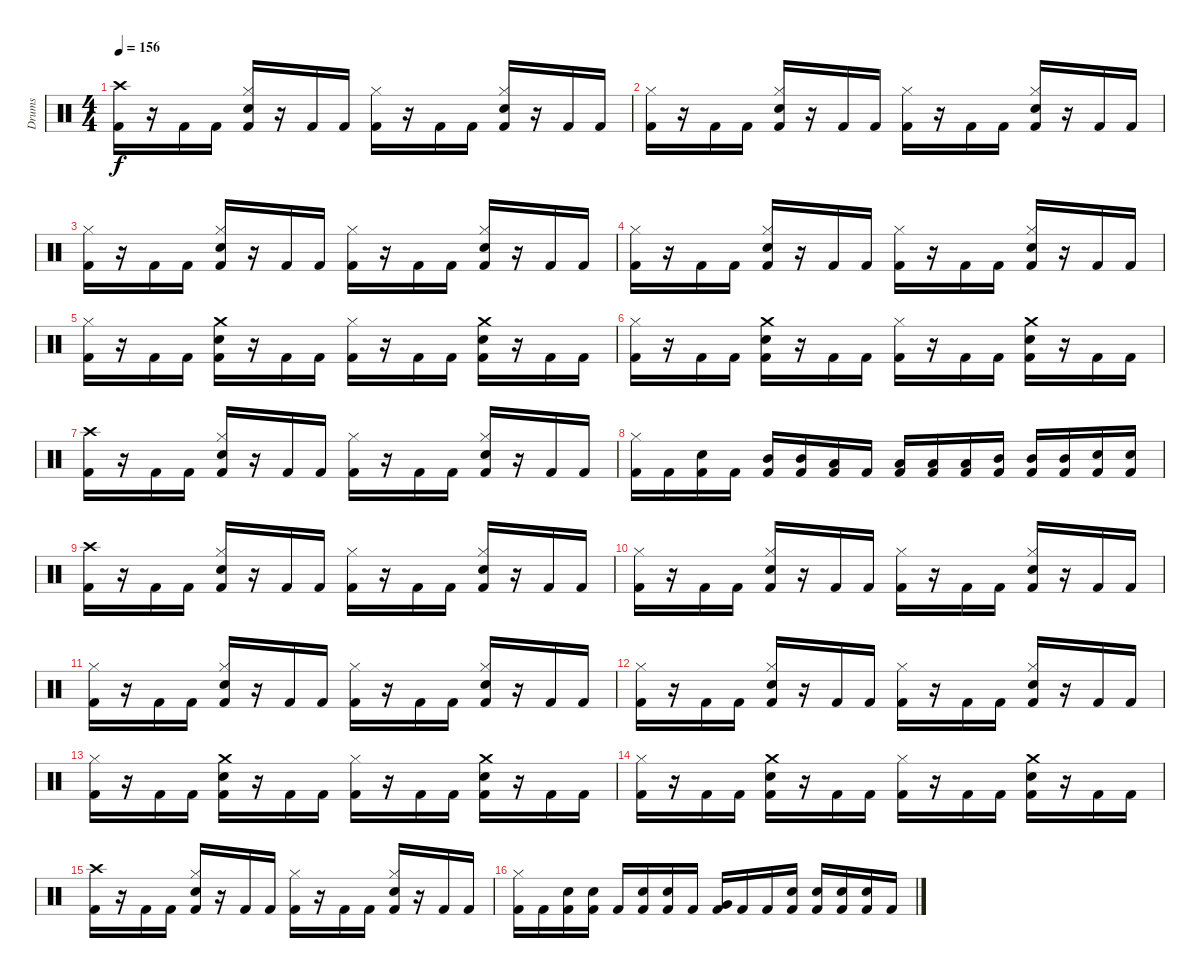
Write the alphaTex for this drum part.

\track ("Drums" "Drums") {instrument percussion}
\staff {score}
\articulation defaults
\ts (4 4)
\section ("" "")
\tempo 156
\clef neutral
\ks c
("Crash high (hit)" "Kick (hit) 2").16{dy f} r.16 "Kick (hit) 2".16 "Kick (hit) 2".16 ("Hi-Hat (closed)" "Snare (hit) 2" "Kick (hit) 2").16 r.16 "Kick (hit) 2".16 "Kick (hit) 2".16 ("Hi-Hat (closed)" "Kick (hit) 2").16 r.16 "Kick (hit) 2".16 "Kick (hit) 2".16 ("Hi-Hat (closed)" "Snare (hit) 2" "Kick (hit) 2").16 r.16 "Kick (hit) 2".16 "Kick (hit) 2".16 |
("Hi-Hat (closed)" "Kick (hit) 2").16 r.16 "Kick (hit) 2".16 "Kick (hit) 2".16 ("Hi-Hat (closed)" "Snare (hit) 2" "Kick (hit) 2").16 r.16 "Kick (hit) 2".16 "Kick (hit) 2".16 ("Hi-Hat (closed)" "Kick (hit) 2").16 r.16 "Kick (hit) 2".16 "Kick (hit) 2".16 ("Hi-Hat (closed)" "Snare (hit) 2" "Kick (hit) 2").16 r.16 "Kick (hit) 2".16 "Kick (hit) 2".16 |
("Hi-Hat (closed)" "Kick (hit) 2").16 r.16 "Kick (hit) 2".16 "Kick (hit) 2".16 ("Hi-Hat (closed)" "Snare (hit) 2" "Kick (hit) 2").16 r.16 "Kick (hit) 2".16 "Kick (hit) 2".16 ("Hi-Hat (closed)" "Kick (hit) 2").16 r.16 "Kick (hit) 2".16 "Kick (hit) 2".16 ("Hi-Hat (closed)" "Snare (hit) 2" "Kick (hit) 2").16 r.16 "Kick (hit) 2".16 "Kick (hit) 2".16 |
("Hi-Hat (closed)" "Kick (hit) 2").16 r.16 "Kick (hit) 2".16 "Kick (hit) 2".16 ("Hi-Hat (closed)" "Snare (hit) 2" "Kick (hit) 2").16 r.16 "Kick (hit) 2".16 "Kick (hit) 2".16 ("Hi-Hat (closed)" "Kick (hit) 2").16 r.16 "Kick (hit) 2".16 "Kick (hit) 2".16 ("Hi-Hat (closed)" "Snare (hit) 2" "Kick (hit) 2").16 r.16 "Kick (hit) 2".16 "Kick (hit) 2".16 |
("Hi-Hat (closed)" "Kick (hit) 2").16 r.16 "Kick (hit) 2".16 "Kick (hit) 2".16 ("Crash medium (hit)" "Snare (hit) 2" "Kick (hit) 2").16 r.16 "Kick (hit) 2".16 "Kick (hit) 2".16 ("Hi-Hat (closed)" "Kick (hit) 2").16 r.16 "Kick (hit) 2".16 "Kick (hit) 2".16 ("Crash medium (hit)" "Snare (hit) 2" "Kick (hit) 2").16 r.16 "Kick (hit) 2".16 "Kick (hit) 2".16 |
("Hi-Hat (closed)" "Kick (hit) 2").16 r.16 "Kick (hit) 2".16 "Kick (hit) 2".16 ("Crash medium (hit)" "Snare (hit) 2" "Kick (hit) 2").16 r.16 "Kick (hit) 2".16 "Kick (hit) 2".16 ("Hi-Hat (closed)" "Kick (hit) 2").16 r.16 "Kick (hit) 2".16 "Kick (hit) 2".16 ("Crash medium (hit)" "Snare (hit) 2" "Kick (hit) 2").16 r.16 "Kick (hit) 2".16 "Kick (hit) 2".16 |
("Crash high (hit)" "Kick (hit) 2").16 r.16 "Kick (hit) 2".16 "Kick (hit) 2".16 ("Hi-Hat (closed)" "Snare (hit) 2" "Kick (hit) 2").16 r.16 "Kick (hit) 2".16 "Kick (hit) 2".16 ("Hi-Hat (closed)" "Kick (hit) 2").16 r.16 "Kick (hit) 2".16 "Kick (hit) 2".16 ("Hi-Hat (closed)" "Snare (hit) 2" "Kick (hit) 2").16 r.16 "Kick (hit) 2".16 "Kick (hit) 2".16 |
("Hi-Hat (closed)" "Kick (hit) 2").16 "Kick (hit) 2".16 ("Snare (hit) 2" "Kick (hit) 2").16 "Kick (hit) 2".16 ("Mid Tom (hit)" "Kick (hit) 2").16 ("Mid Tom (hit)" "Kick (hit) 2").16 ("Low Tom (hit)" "Kick (hit) 2").16 "Kick (hit) 2".16 ("Low Tom (hit)" "Kick (hit) 2").16 ("Low Tom (hit)" "Kick (hit) 2").16 ("Low Tom (hit)" "Kick (hit) 2").16 ("Mid Tom (hit)" "Kick (hit) 2").16 ("Mid Tom (hit)" "Kick (hit) 2").16 ("Mid Tom (hit)" "Kick (hit) 2").16 ("Snare (hit) 2" "Kick (hit) 2").16 ("Snare (hit) 2" "Kick (hit) 2").16 |
("Crash high (hit)" "Kick (hit) 2").16 r.16 "Kick (hit) 2".16 "Kick (hit) 2".16 ("Hi-Hat (closed)" "Snare (hit) 2" "Kick (hit) 2").16 r.16 "Kick (hit) 2".16 "Kick (hit) 2".16 ("Hi-Hat (closed)" "Kick (hit) 2").16 r.16 "Kick (hit) 2".16 "Kick (hit) 2".16 ("Hi-Hat (closed)" "Snare (hit) 2" "Kick (hit) 2").16 r.16 "Kick (hit) 2".16 "Kick (hit) 2".16 |
("Hi-Hat (closed)" "Kick (hit) 2").16 r.16 "Kick (hit) 2".16 "Kick (hit) 2".16 ("Hi-Hat (closed)" "Snare (hit) 2" "Kick (hit) 2").16 r.16 "Kick (hit) 2".16 "Kick (hit) 2".16 ("Hi-Hat (closed)" "Kick (hit) 2").16 r.16 "Kick (hit) 2".16 "Kick (hit) 2".16 ("Hi-Hat (closed)" "Snare (hit) 2" "Kick (hit) 2").16 r.16 "Kick (hit) 2".16 "Kick (hit) 2".16 |
("Hi-Hat (closed)" "Kick (hit) 2").16 r.16 "Kick (hit) 2".16 "Kick (hit) 2".16 ("Hi-Hat (closed)" "Snare (hit) 2" "Kick (hit) 2").16 r.16 "Kick (hit) 2".16 "Kick (hit) 2".16 ("Hi-Hat (closed)" "Kick (hit) 2").16 r.16 "Kick (hit) 2".16 "Kick (hit) 2".16 ("Hi-Hat (closed)" "Snare (hit) 2" "Kick (hit) 2").16 r.16 "Kick (hit) 2".16 "Kick (hit) 2".16 |
("Hi-Hat (closed)" "Kick (hit) 2").16 r.16 "Kick (hit) 2".16 "Kick (hit) 2".16 ("Hi-Hat (closed)" "Snare (hit) 2" "Kick (hit) 2").16 r.16 "Kick (hit) 2".16 "Kick (hit) 2".16 ("Hi-Hat (closed)" "Kick (hit) 2").16 r.16 "Kick (hit) 2".16 "Kick (hit) 2".16 ("Hi-Hat (closed)" "Snare (hit) 2" "Kick (hit) 2").16 r.16 "Kick (hit) 2".16 "Kick (hit) 2".16 |
("Hi-Hat (closed)" "Kick (hit) 2").16 r.16 "Kick (hit) 2".16 "Kick (hit) 2".16 ("Crash medium (hit)" "Snare (hit) 2" "Kick (hit) 2").16 r.16 "Kick (hit) 2".16 "Kick (hit) 2".16 ("Hi-Hat (closed)" "Kick (hit) 2").16 r.16 "Kick (hit) 2".16 "Kick (hit) 2".16 ("Crash medium (hit)" "Snare (hit) 2" "Kick (hit) 2").16 r.16 "Kick (hit) 2".16 "Kick (hit) 2".16 |
("Hi-Hat (closed)" "Kick (hit) 2").16 r.16 "Kick (hit) 2".16 "Kick (hit) 2".16 ("Crash medium (hit)" "Snare (hit) 2" "Kick (hit) 2").16 r.16 "Kick (hit) 2".16 "Kick (hit) 2".16 ("Hi-Hat (closed)" "Kick (hit) 2").16 r.16 "Kick (hit) 2".16 "Kick (hit) 2".16 ("Crash medium (hit)" "Snare (hit) 2" "Kick (hit) 2").16 r.16 "Kick (hit) 2".16 "Kick (hit) 2".16 |
("Crash high (hit)" "Kick (hit) 2").16 r.16 "Kick (hit) 2".16 "Kick (hit) 2".16 ("Hi-Hat (closed)" "Snare (hit) 2" "Kick (hit) 2").16 r.16 "Kick (hit) 2".16 "Kick (hit) 2".16 ("Hi-Hat (closed)" "Kick (hit) 2").16 r.16 "Kick (hit) 2".16 "Kick (hit) 2".16 ("Hi-Hat (closed)" "Snare (hit) 2" "Kick (hit) 2").16 r.16 "Kick (hit) 2".16 "Kick (hit) 2".16 |
("Hi-Hat (closed)" "Kick (hit) 2").16 "Kick (hit) 2".16 ("Snare (hit) 2" "Kick (hit) 2").16 ("Snare (hit) 2" "Kick (hit) 2").16 "Kick (hit) 2".16 ("Snare (hit) 2" "Kick (hit) 2").16 ("Snare (hit) 2" "Kick (hit) 2").16 "Kick (hit) 2".16 ("Very Low Tom (hit)" "Kick (hit) 2").16 "Kick (hit) 2".16 "Kick (hit) 2".16 ("Snare (hit) 2" "Kick (hit) 2").16 ("Snare (hit) 2" "Kick (hit) 2").16 ("Snare (hit) 2" "Kick (hit) 2").16 ("Snare (hit) 2" "Kick (hit) 2").16 "Kick (hit) 2".16
